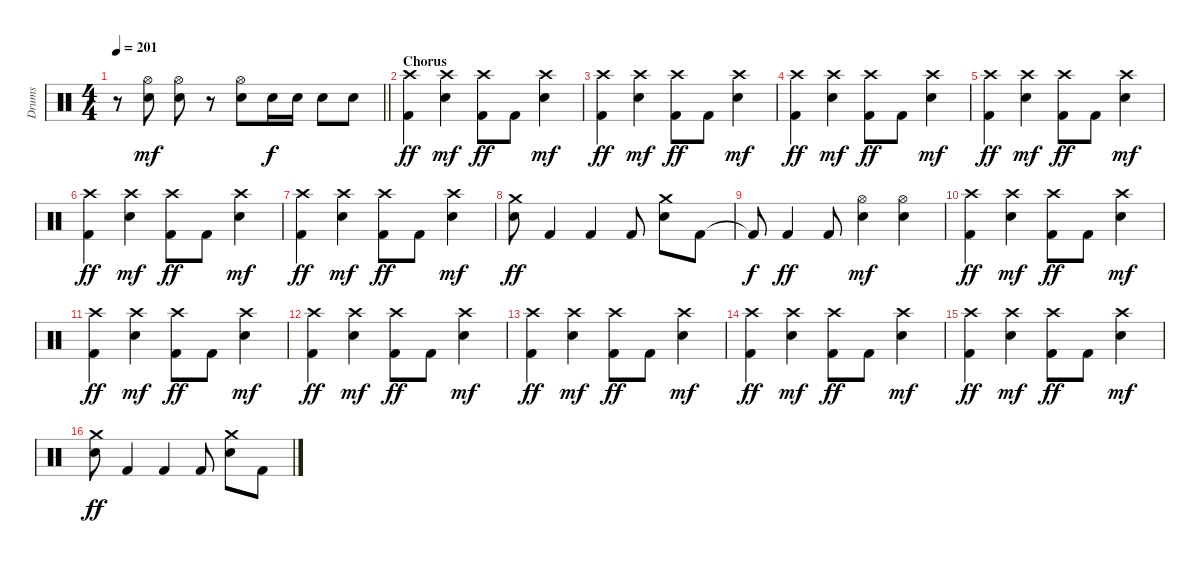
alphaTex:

\track ("Drums" "Drums") {instrument percussion}
\staff {score}
\articulation defaults
\ts (4 4)
\tempo 201
\clef neutral
\barLineRight lightlight
\ks c
r.8{dy mf} ("Hi-Hat (open)" "Snare (hit) 2").8 ("Hi-Hat (open)" "Snare (hit) 2").8 r.8 ("Hi-Hat (open)" "Snare (hit) 2").8 "Snare (hit) 2".16{dy f} "Snare (hit) 2".16 "Snare (hit) 2".8 "Snare (hit) 2".8 |
\section ("" "Chorus")
("Crash high (hit)" "Kick (hit) 2").4{dy ff} ("Crash high (hit)" "Snare (hit) 2").4{dy mf} ("Crash high (hit)" "Kick (hit) 2").8{dy ff} "Kick (hit) 2".8 ("Crash high (hit)" "Snare (hit) 2").4{dy mf} |
("Crash high (hit)" "Kick (hit) 2").4{dy ff} ("Crash high (hit)" "Snare (hit) 2").4{dy mf} ("Crash high (hit)" "Kick (hit) 2").8{dy ff} "Kick (hit) 2".8 ("Crash high (hit)" "Snare (hit) 2").4{dy mf} |
("Crash high (hit)" "Kick (hit) 2").4{dy ff} ("Crash high (hit)" "Snare (hit) 2").4{dy mf} ("Crash high (hit)" "Kick (hit) 2").8{dy ff} "Kick (hit) 2".8 ("Crash high (hit)" "Snare (hit) 2").4{dy mf} |
("Crash high (hit)" "Kick (hit) 2").4{dy ff} ("Crash high (hit)" "Snare (hit) 2").4{dy mf} ("Crash high (hit)" "Kick (hit) 2").8{dy ff} "Kick (hit) 2".8 ("Crash high (hit)" "Snare (hit) 2").4{dy mf} |
("Crash high (hit)" "Kick (hit) 2").4{dy ff} ("Crash high (hit)" "Snare (hit) 2").4{dy mf} ("Crash high (hit)" "Kick (hit) 2").8{dy ff} "Kick (hit) 2".8 ("Crash high (hit)" "Snare (hit) 2").4{dy mf} |
("Crash high (hit)" "Kick (hit) 2").4{dy ff} ("Crash high (hit)" "Snare (hit) 2").4{dy mf} ("Crash high (hit)" "Kick (hit) 2").8{dy ff} "Kick (hit) 2".8 ("Crash high (hit)" "Snare (hit) 2").4{dy mf} |
("Crash medium (hit)" "Snare (hit) 2").8{dy ff} "Kick (hit) 2".4 "Kick (hit) 2".4 "Kick (hit) 2".8 ("Crash medium (hit)" "Snare (hit) 2").8 "Kick (hit) 2".8 |
"Kick (hit) 2"{t}.8{dy f} "Kick (hit) 2".4{dy ff} "Kick (hit) 2".8 ("Hi-Hat (open)" "Snare (hit) 2").4{dy mf} ("Hi-Hat (open)" "Snare (hit) 2").4 |
("Crash high (hit)" "Kick (hit) 2").4{dy ff} ("Crash high (hit)" "Snare (hit) 2").4{dy mf} ("Crash high (hit)" "Kick (hit) 2").8{dy ff} "Kick (hit) 2".8 ("Crash high (hit)" "Snare (hit) 2").4{dy mf} |
("Crash high (hit)" "Kick (hit) 2").4{dy ff} ("Crash high (hit)" "Snare (hit) 2").4{dy mf} ("Crash high (hit)" "Kick (hit) 2").8{dy ff} "Kick (hit) 2".8 ("Crash high (hit)" "Snare (hit) 2").4{dy mf} |
("Crash high (hit)" "Kick (hit) 2").4{dy ff} ("Crash high (hit)" "Snare (hit) 2").4{dy mf} ("Crash high (hit)" "Kick (hit) 2").8{dy ff} "Kick (hit) 2".8 ("Crash high (hit)" "Snare (hit) 2").4{dy mf} |
("Crash high (hit)" "Kick (hit) 2").4{dy ff} ("Crash high (hit)" "Snare (hit) 2").4{dy mf} ("Crash high (hit)" "Kick (hit) 2").8{dy ff} "Kick (hit) 2".8 ("Crash high (hit)" "Snare (hit) 2").4{dy mf} |
("Crash high (hit)" "Kick (hit) 2").4{dy ff} ("Crash high (hit)" "Snare (hit) 2").4{dy mf} ("Crash high (hit)" "Kick (hit) 2").8{dy ff} "Kick (hit) 2".8 ("Crash high (hit)" "Snare (hit) 2").4{dy mf} |
("Crash high (hit)" "Kick (hit) 2").4{dy ff} ("Crash high (hit)" "Snare (hit) 2").4{dy mf} ("Crash high (hit)" "Kick (hit) 2").8{dy ff} "Kick (hit) 2".8 ("Crash high (hit)" "Snare (hit) 2").4{dy mf} |
("Crash medium (hit)" "Snare (hit) 2").8{dy ff} "Kick (hit) 2".4 "Kick (hit) 2".4 "Kick (hit) 2".8 ("Crash medium (hit)" "Snare (hit) 2").8 "Kick (hit) 2".8
